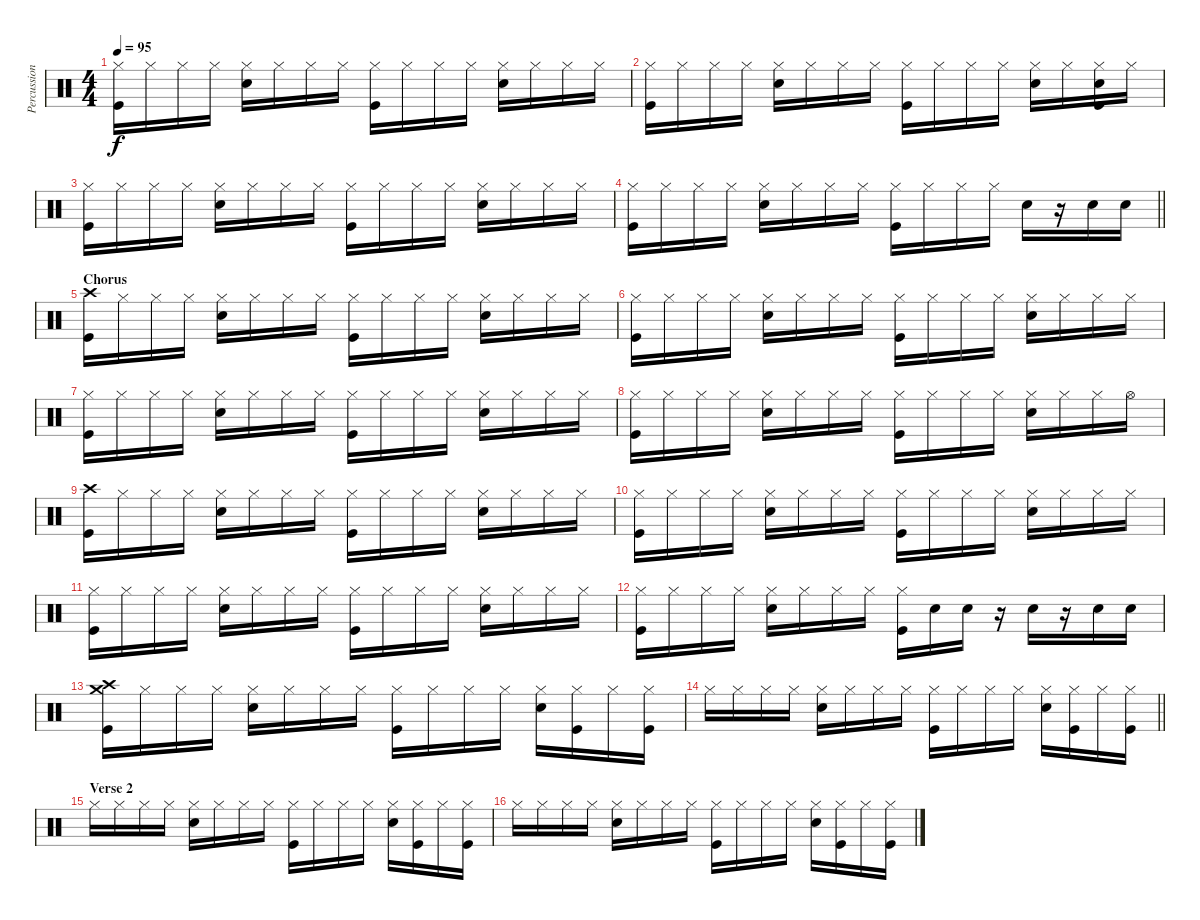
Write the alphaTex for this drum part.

\track ("Percussion" "Percussion") {instrument percussion}
\staff {score}
\articulation defaults
\ts (4 4)
\tempo 95
\clef neutral
\ks c
("Hi-Hat (closed)" "Kick (hit)").16{dy f} "Hi-Hat (closed)".16 "Hi-Hat (closed)".16 "Hi-Hat (closed)".16 ("Hi-Hat (closed)" "Snare (hit) 2").16 "Hi-Hat (closed)".16 "Hi-Hat (closed)".16 "Hi-Hat (closed)".16 ("Hi-Hat (closed)" "Kick (hit)").16 "Hi-Hat (closed)".16 "Hi-Hat (closed)".16 "Hi-Hat (closed)".16 ("Hi-Hat (closed)" "Snare (hit) 2").16 "Hi-Hat (closed)".16 "Hi-Hat (closed)".16 "Hi-Hat (closed)".16 |
("Hi-Hat (closed)" "Kick (hit)").16 "Hi-Hat (closed)".16 "Hi-Hat (closed)".16 "Hi-Hat (closed)".16 ("Hi-Hat (closed)" "Snare (hit) 2").16 "Hi-Hat (closed)".16 "Hi-Hat (closed)".16 "Hi-Hat (closed)".16 ("Hi-Hat (closed)" "Kick (hit)").16 "Hi-Hat (closed)".16 "Hi-Hat (closed)".16 "Hi-Hat (closed)".16 ("Hi-Hat (closed)" "Snare (hit) 2").16 "Hi-Hat (closed)".16 ("Hi-Hat (closed)" "Snare (hit) 2" "Kick (hit)").16 "Hi-Hat (closed)".16 |
("Hi-Hat (closed)" "Kick (hit)").16 "Hi-Hat (closed)".16 "Hi-Hat (closed)".16 "Hi-Hat (closed)".16 ("Hi-Hat (closed)" "Snare (hit) 2").16 "Hi-Hat (closed)".16 "Hi-Hat (closed)".16 "Hi-Hat (closed)".16 ("Hi-Hat (closed)" "Kick (hit)").16 "Hi-Hat (closed)".16 "Hi-Hat (closed)".16 "Hi-Hat (closed)".16 ("Hi-Hat (closed)" "Snare (hit) 2").16 "Hi-Hat (closed)".16 "Hi-Hat (closed)".16 "Hi-Hat (closed)".16 |
\barLineRight lightlight
("Hi-Hat (closed)" "Kick (hit)").16 "Hi-Hat (closed)".16 "Hi-Hat (closed)".16 "Hi-Hat (closed)".16 ("Hi-Hat (closed)" "Snare (hit) 2").16 "Hi-Hat (closed)".16 "Hi-Hat (closed)".16 "Hi-Hat (closed)".16 ("Hi-Hat (closed)" "Kick (hit)").16 "Hi-Hat (closed)".16 "Hi-Hat (closed)".16 "Hi-Hat (closed)".16 "Snare (hit) 2".16 r.16 "Snare (hit) 2".16 "Snare (hit) 2".16 |
\section ("" "Chorus")
("Crash high (hit)" "Kick (hit)").16 "Hi-Hat (closed)".16 "Hi-Hat (closed)".16 "Hi-Hat (closed)".16 ("Hi-Hat (closed)" "Snare (hit) 2").16 "Hi-Hat (closed)".16 "Hi-Hat (closed)".16 "Hi-Hat (closed)".16 ("Hi-Hat (closed)" "Kick (hit)").16 "Hi-Hat (closed)".16 "Hi-Hat (closed)".16 "Hi-Hat (closed)".16 ("Hi-Hat (closed)" "Snare (hit) 2").16 "Hi-Hat (closed)".16 "Hi-Hat (closed)".16 "Hi-Hat (closed)".16 |
("Hi-Hat (closed)" "Kick (hit)").16 "Hi-Hat (closed)".16 "Hi-Hat (closed)".16 "Hi-Hat (closed)".16 ("Hi-Hat (closed)" "Snare (hit) 2").16 "Hi-Hat (closed)".16 "Hi-Hat (closed)".16 "Hi-Hat (closed)".16 ("Hi-Hat (closed)" "Kick (hit)").16 "Hi-Hat (closed)".16 "Hi-Hat (closed)".16 "Hi-Hat (closed)".16 ("Hi-Hat (closed)" "Snare (hit) 2").16 "Hi-Hat (closed)".16 "Hi-Hat (closed)".16 "Hi-Hat (closed)".16 |
("Hi-Hat (closed)" "Kick (hit)").16 "Hi-Hat (closed)".16 "Hi-Hat (closed)".16 "Hi-Hat (closed)".16 ("Hi-Hat (closed)" "Snare (hit) 2").16 "Hi-Hat (closed)".16 "Hi-Hat (closed)".16 "Hi-Hat (closed)".16 ("Hi-Hat (closed)" "Kick (hit)").16 "Hi-Hat (closed)".16 "Hi-Hat (closed)".16 "Hi-Hat (closed)".16 ("Hi-Hat (closed)" "Snare (hit) 2").16 "Hi-Hat (closed)".16 "Hi-Hat (closed)".16 "Hi-Hat (closed)".16 |
("Hi-Hat (closed)" "Kick (hit)").16 "Hi-Hat (closed)".16 "Hi-Hat (closed)".16 "Hi-Hat (closed)".16 ("Hi-Hat (closed)" "Snare (hit) 2").16 "Hi-Hat (closed)".16 "Hi-Hat (closed)".16 "Hi-Hat (closed)".16 ("Hi-Hat (closed)" "Kick (hit)").16 "Hi-Hat (closed)".16 "Hi-Hat (closed)".16 "Hi-Hat (closed)".16 ("Hi-Hat (closed)" "Snare (hit) 2").16 "Hi-Hat (closed)".16 "Hi-Hat (closed)".16 "Hi-Hat (open)".16 |
("Crash high (hit)" "Kick (hit)").16 "Hi-Hat (closed)".16 "Hi-Hat (closed)".16 "Hi-Hat (closed)".16 ("Hi-Hat (closed)" "Snare (hit) 2").16 "Hi-Hat (closed)".16 "Hi-Hat (closed)".16 "Hi-Hat (closed)".16 ("Hi-Hat (closed)" "Kick (hit)").16 "Hi-Hat (closed)".16 "Hi-Hat (closed)".16 "Hi-Hat (closed)".16 ("Hi-Hat (closed)" "Snare (hit) 2").16 "Hi-Hat (closed)".16 "Hi-Hat (closed)".16 "Hi-Hat (closed)".16 |
("Hi-Hat (closed)" "Kick (hit)").16 "Hi-Hat (closed)".16 "Hi-Hat (closed)".16 "Hi-Hat (closed)".16 ("Hi-Hat (closed)" "Snare (hit) 2").16 "Hi-Hat (closed)".16 "Hi-Hat (closed)".16 "Hi-Hat (closed)".16 ("Hi-Hat (closed)" "Kick (hit)").16 "Hi-Hat (closed)".16 "Hi-Hat (closed)".16 "Hi-Hat (closed)".16 ("Hi-Hat (closed)" "Snare (hit) 2").16 "Hi-Hat (closed)".16 "Hi-Hat (closed)".16 "Hi-Hat (closed)".16 |
("Hi-Hat (closed)" "Kick (hit)").16 "Hi-Hat (closed)".16 "Hi-Hat (closed)".16 "Hi-Hat (closed)".16 ("Hi-Hat (closed)" "Snare (hit) 2").16 "Hi-Hat (closed)".16 "Hi-Hat (closed)".16 "Hi-Hat (closed)".16 ("Hi-Hat (closed)" "Kick (hit)").16 "Hi-Hat (closed)".16 "Hi-Hat (closed)".16 "Hi-Hat (closed)".16 ("Hi-Hat (closed)" "Snare (hit) 2").16 "Hi-Hat (closed)".16 "Hi-Hat (closed)".16 "Hi-Hat (closed)".16 |
("Hi-Hat (closed)" "Kick (hit)").16 "Hi-Hat (closed)".16 "Hi-Hat (closed)".16 "Hi-Hat (closed)".16 ("Hi-Hat (closed)" "Snare (hit) 2").16 "Hi-Hat (closed)".16 "Hi-Hat (closed)".16 "Hi-Hat (closed)".16 ("Hi-Hat (closed)" "Kick (hit)").16 "Snare (hit) 2".16 "Snare (hit) 2".16 r.16 "Snare (hit) 2".16 r.16 "Snare (hit) 2".16 "Snare (hit) 2".16 |
("Crash high (hit)" "Crash medium (hit)" "Kick (hit)").16 "Hi-Hat (closed)".16 "Hi-Hat (closed)".16 "Hi-Hat (closed)".16 ("Hi-Hat (closed)" "Snare (hit) 2").16 "Hi-Hat (closed)".16 "Hi-Hat (closed)".16 "Hi-Hat (closed)".16 ("Hi-Hat (closed)" "Kick (hit)").16 "Hi-Hat (closed)".16 "Hi-Hat (closed)".16 "Hi-Hat (closed)".16 ("Hi-Hat (closed)" "Snare (hit) 2").16 ("Hi-Hat (closed)" "Kick (hit)").16 "Hi-Hat (closed)".16 ("Hi-Hat (closed)" "Kick (hit)").16 |
\barLineRight lightlight "Hi-Hat (closed)".16 "Hi-Hat (closed)".16 "Hi-Hat (closed)".16 "Hi-Hat (closed)".16
("Hi-Hat (closed)" "Snare (hit) 2").16 "Hi-Hat (closed)".16 "Hi-Hat (closed)".16 "Hi-Hat (closed)".16 ("Hi-Hat (closed)" "Kick (hit)").16 "Hi-Hat (closed)".16 "Hi-Hat (closed)".16 "Hi-Hat (closed)".16 ("Hi-Hat (closed)" "Snare (hit) 2").16 ("Hi-Hat (closed)" "Kick (hit)").16 "Hi-Hat (closed)".16 ("Hi-Hat (closed)" "Kick (hit)").16 |
\section ("" "Verse 2")
"Hi-Hat (closed)".16 "Hi-Hat (closed)".16 "Hi-Hat (closed)".16 "Hi-Hat (closed)".16 ("Hi-Hat (closed)" "Snare (hit) 2").16 "Hi-Hat (closed)".16 "Hi-Hat (closed)".16 "Hi-Hat (closed)".16 ("Hi-Hat (closed)" "Kick (hit)").16 "Hi-Hat (closed)".16 "Hi-Hat (closed)".16 "Hi-Hat (closed)".16 ("Hi-Hat (closed)" "Snare (hit) 2").16 ("Hi-Hat (closed)" "Kick (hit)").16 "Hi-Hat (closed)".16 ("Hi-Hat (closed)" "Kick (hit)").16 |
"Hi-Hat (closed)".16 "Hi-Hat (closed)".16 "Hi-Hat (closed)".16 "Hi-Hat (closed)".16 ("Hi-Hat (closed)" "Snare (hit) 2").16 "Hi-Hat (closed)".16 "Hi-Hat (closed)".16 "Hi-Hat (closed)".16 ("Hi-Hat (closed)" "Kick (hit)").16 "Hi-Hat (closed)".16 "Hi-Hat (closed)".16 "Hi-Hat (closed)".16 ("Hi-Hat (closed)" "Snare (hit) 2").16 ("Hi-Hat (closed)" "Kick (hit)").16 "Hi-Hat (closed)".16 ("Hi-Hat (closed)" "Kick (hit)").16
